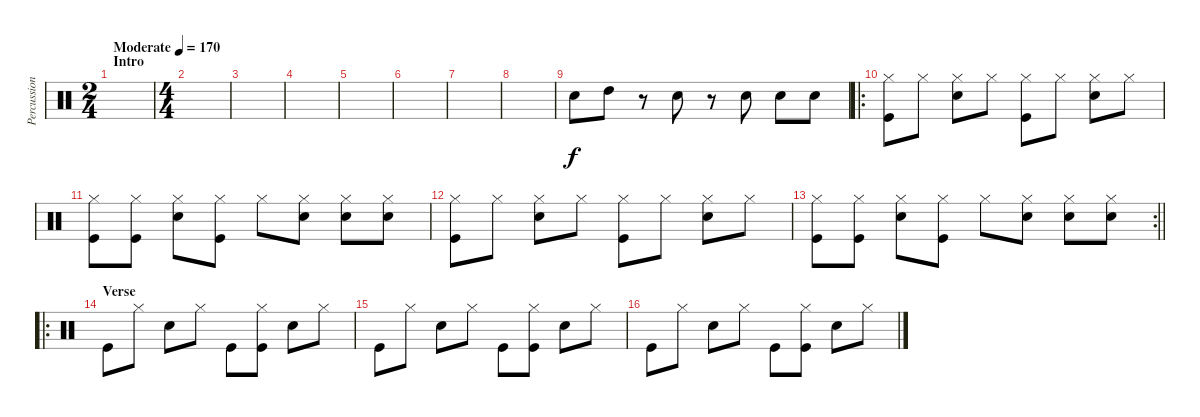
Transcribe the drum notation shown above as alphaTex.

\track ("Percussion" "Percussion") {instrument percussion}
\staff {score}
\articulation defaults
\ts (2 4)
\section ("" "Intro")
\tempo (170 "Moderate")
\clef neutral
\ks c
|
\ts (4 4)
|
|
|
|
|
|
|
"Snare (hit) 2".8 "High Tom (hit)".8 r.8 "Snare (hit) 2".8 r.8 "Snare (hit) 2".8 "Snare (hit) 2".8 "Snare (hit) 2".8 |
\ro
("Hi-Hat (closed)" "Kick (hit)").8 "Hi-Hat (closed)".8 ("Hi-Hat (closed)" "Snare (hit) 2").8 "Hi-Hat (closed)".8 ("Hi-Hat (closed)" "Kick (hit)").8 "Hi-Hat (closed)".8 ("Hi-Hat (closed)" "Snare (hit) 2").8 "Hi-Hat (closed)".8 |
("Hi-Hat (closed)" "Kick (hit)").8 ("Hi-Hat (closed)" "Kick (hit)").8 ("Hi-Hat (closed)" "Snare (hit) 2").8 ("Hi-Hat (closed)" "Kick (hit)").8 "Hi-Hat (closed)".8 ("Hi-Hat (closed)" "Snare (hit) 2").8 ("Hi-Hat (closed)" "Snare (hit) 2").8 ("Hi-Hat (closed)" "Snare (hit) 2").8 |
("Hi-Hat (closed)" "Kick (hit)").8 "Hi-Hat (closed)".8 ("Hi-Hat (closed)" "Snare (hit) 2").8 "Hi-Hat (closed)".8 ("Hi-Hat (closed)" "Kick (hit)").8 "Hi-Hat (closed)".8 ("Hi-Hat (closed)" "Snare (hit) 2").8 "Hi-Hat (closed)".8 |
\rc 2
\barLineRight lightlight
("Hi-Hat (closed)" "Kick (hit)").8 ("Hi-Hat (closed)" "Kick (hit)").8 ("Hi-Hat (closed)" "Snare (hit) 2").8 ("Hi-Hat (closed)" "Kick (hit)").8 "Hi-Hat (closed)".8 ("Hi-Hat (closed)" "Snare (hit) 2").8 ("Hi-Hat (closed)" "Snare (hit) 2").8 ("Hi-Hat (closed)" "Snare (hit) 2").8 |
\ro
\section ("" "Verse")
"Kick (hit)".8 "Hi-Hat (closed)".8 "Snare (hit) 2".8 "Hi-Hat (closed)".8 "Kick (hit)".8 ("Hi-Hat (closed)" "Kick (hit)").8 "Snare (hit) 2".8 "Hi-Hat (closed)".8 |
"Kick (hit)".8 "Hi-Hat (closed)".8 "Snare (hit) 2".8 "Hi-Hat (closed)".8 "Kick (hit)".8 ("Hi-Hat (closed)" "Kick (hit)").8 "Snare (hit) 2".8 "Hi-Hat (closed)".8 |
"Kick (hit)".8 "Hi-Hat (closed)".8 "Snare (hit) 2".8 "Hi-Hat (closed)".8 "Kick (hit)".8 ("Hi-Hat (closed)" "Kick (hit)").8 "Snare (hit) 2".8 "Hi-Hat (closed)".8
